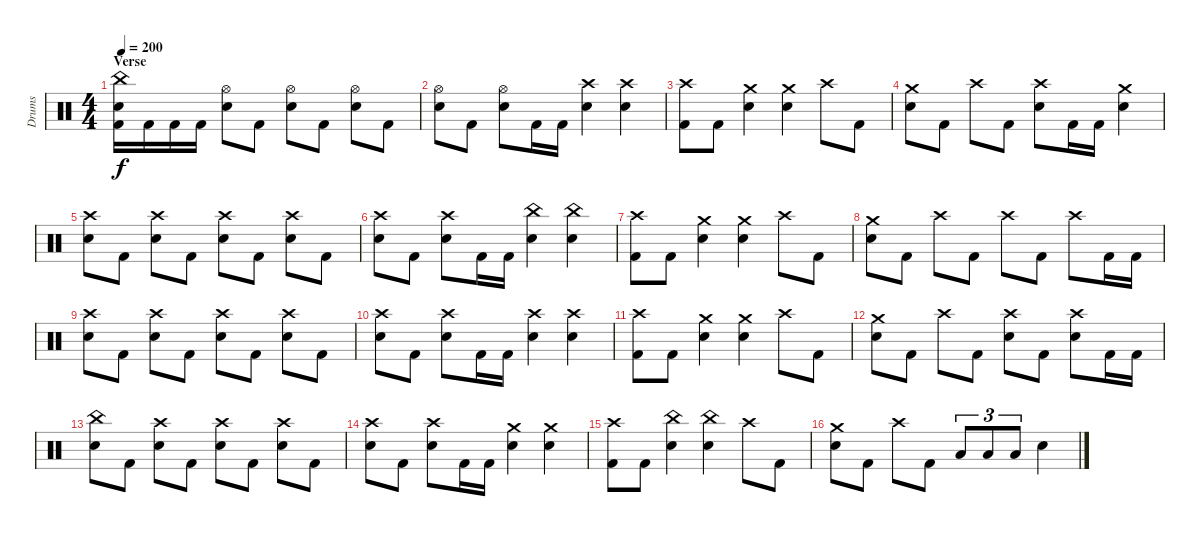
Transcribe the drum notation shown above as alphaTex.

\track ("Drums" "Drums") {instrument percussion}
\staff {score}
\articulation defaults
\ts (4 4)
\section ("" "Verse")
\tempo 200
\clef neutral
\ks c
("China (hit)" "Electric Snare (hit)" "Kick (hit) 2").16{dy f} "Kick (hit) 2".16 "Kick (hit) 2".16 "Kick (hit) 2".16 ("Hi-Hat (open)" "Electric Snare (hit)").8 "Kick (hit) 2".8 ("Hi-Hat (open)" "Electric Snare (hit)").8 "Kick (hit) 2".8 ("Hi-Hat (open)" "Electric Snare (hit)").8 "Kick (hit) 2".8 |
("Hi-Hat (open)" "Electric Snare (hit)").8 "Kick (hit) 2".8 ("Hi-Hat (open)" "Electric Snare (hit)").8 "Kick (hit) 2".16 "Kick (hit) 2".16 ("Crash high (hit)" "Electric Snare (hit)").4 ("Crash high (hit)" "Electric Snare (hit)").4 |
("Crash high (hit)" "Kick (hit) 2").8 "Kick (hit) 2".8 ("Crash medium (hit)" "Electric Snare (hit)").4 ("Crash medium (hit)" "Electric Snare (hit)").4 "Crash high (hit)".8 "Kick (hit) 2".8 |
("Crash medium (hit)" "Electric Snare (hit)").8 "Kick (hit) 2".8 "Crash high (hit)".8 "Kick (hit) 2".8 ("Crash high (hit)" "Electric Snare (hit)").8 "Kick (hit) 2".16 "Kick (hit) 2".16 ("Crash medium (hit)" "Electric Snare (hit)").4 |
("Crash high (hit)" "Electric Snare (hit)").8 "Kick (hit) 2".8 ("Crash high (hit)" "Electric Snare (hit)").8 "Kick (hit) 2".8 ("Crash high (hit)" "Electric Snare (hit)").8 "Kick (hit) 2".8 ("Crash high (hit)" "Electric Snare (hit)").8 "Kick (hit) 2".8 |
("Crash high (hit)" "Electric Snare (hit)").8 "Kick (hit) 2".8 ("Crash high (hit)" "Electric Snare (hit)").8 "Kick (hit) 2".16 "Kick (hit) 2".16 ("China (hit)" "Electric Snare (hit)").4 ("China (hit)" "Electric Snare (hit)").4 |
("Crash high (hit)" "Kick (hit) 2").8 "Kick (hit) 2".8 ("Crash medium (hit)" "Electric Snare (hit)").4 ("Crash medium (hit)" "Electric Snare (hit)").4 "Crash high (hit)".8 "Kick (hit) 2".8 |
("Crash medium (hit)" "Electric Snare (hit)").8 "Kick (hit) 2".8 "Crash high (hit)".8 "Kick (hit) 2".8 "Crash high (hit)".8 "Kick (hit) 2".8 "Crash high (hit)".8 "Kick (hit) 2".16 "Kick (hit) 2".16 |
("Crash high (hit)" "Electric Snare (hit)").8 "Kick (hit) 2".8 ("Crash high (hit)" "Electric Snare (hit)").8 "Kick (hit) 2".8 ("Crash high (hit)" "Electric Snare (hit)").8 "Kick (hit) 2".8 ("Crash high (hit)" "Electric Snare (hit)").8 "Kick (hit) 2".8 |
("Crash high (hit)" "Electric Snare (hit)").8 "Kick (hit) 2".8 ("Crash high (hit)" "Electric Snare (hit)").8 "Kick (hit) 2".16 "Kick (hit) 2".16 ("Crash high (hit)" "Electric Snare (hit)").4 ("Crash high (hit)" "Electric Snare (hit)").4 |
("Crash high (hit)" "Kick (hit) 2").8 "Kick (hit) 2".8 ("Crash medium (hit)" "Electric Snare (hit)").4 ("Crash medium (hit)" "Electric Snare (hit)").4 "Crash high (hit)".8 "Kick (hit) 2".8 |
("Crash medium (hit)" "Electric Snare (hit)").8 "Kick (hit) 2".8 "Crash high (hit)".8 "Kick (hit) 2".8 ("Crash high (hit)" "Electric Snare (hit)").8 "Kick (hit) 2".8 ("Crash high (hit)" "Electric Snare (hit)").8 "Kick (hit) 2".16 "Kick (hit) 2".16 |
("China (hit)" "Electric Snare (hit)").8 "Kick (hit) 2".8 ("Crash high (hit)" "Electric Snare (hit)").8 "Kick (hit) 2".8 ("Crash high (hit)" "Electric Snare (hit)").8 "Kick (hit) 2".8 ("Crash high (hit)" "Electric Snare (hit)").8 "Kick (hit) 2".8 |
("Crash high (hit)" "Electric Snare (hit)").8 "Kick (hit) 2".8 ("Crash high (hit)" "Electric Snare (hit)").8 "Kick (hit) 2".16 "Kick (hit) 2".16 ("Crash medium (hit)" "Electric Snare (hit)").4 ("Crash medium (hit)" "Electric Snare (hit)").4 |
("Crash high (hit)" "Kick (hit) 2").8 "Kick (hit) 2".8 ("China (hit)" "Electric Snare (hit)").4 ("China (hit)" "Electric Snare (hit)").4 "Crash high (hit)".8 "Kick (hit) 2".8 |
("Crash medium (hit)" "Electric Snare (hit)").8 "Kick (hit) 2".8 "Crash high (hit)".8 "Kick (hit) 2".8 "Low Tom (hit)".8{tu (3 2)} "Low Tom (hit)".8{tu (3 2)} "Low Tom (hit)".8{tu (3 2)} "Electric Snare (hit)".4
